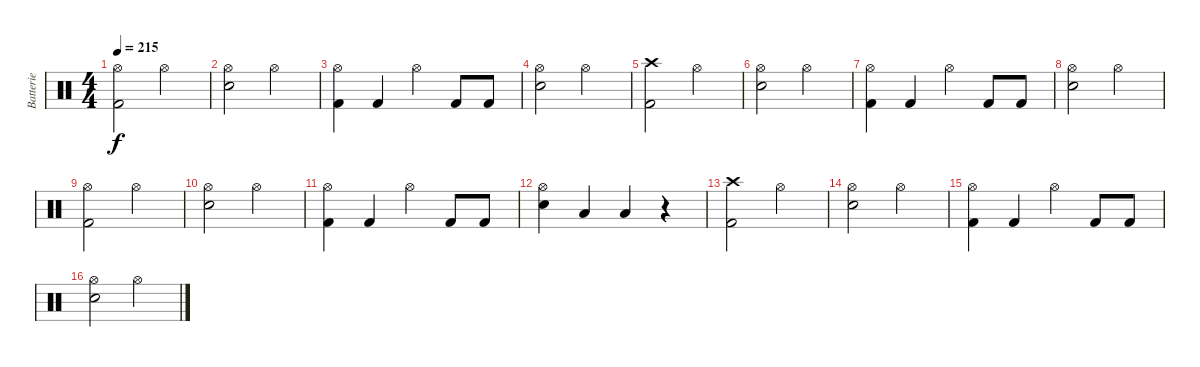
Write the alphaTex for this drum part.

\track ("Batterie" "Batterie") {instrument percussion}
\staff {score}
\articulation defaults
\ts (4 4)
\tempo 215
\clef neutral
\ks c
("Hi-Hat (open)" "Kick (hit) 2").2{dy f} "Hi-Hat (open)".2 |
("Hi-Hat (open)" "Electric Snare (hit)").2 "Hi-Hat (open)".2 |
("Hi-Hat (open)" "Kick (hit) 2").4 "Kick (hit) 2".4 "Hi-Hat (open)".4 "Kick (hit) 2".8 "Kick (hit) 2".8 |
("Hi-Hat (open)" "Electric Snare (hit)").2 "Hi-Hat (open)".2 |
("Crash high (hit)" "Kick (hit) 2").2 "Hi-Hat (open)".2 |
("Hi-Hat (open)" "Electric Snare (hit)").2 "Hi-Hat (open)".2 |
("Hi-Hat (open)" "Kick (hit) 2").4 "Kick (hit) 2".4 "Hi-Hat (open)".4 "Kick (hit) 2".8 "Kick (hit) 2".8 |
("Hi-Hat (open)" "Electric Snare (hit)").2 "Hi-Hat (open)".2 |
("Hi-Hat (open)" "Kick (hit) 2").2 "Hi-Hat (open)".2 |
("Hi-Hat (open)" "Electric Snare (hit)").2 "Hi-Hat (open)".2 |
("Hi-Hat (open)" "Kick (hit) 2").4 "Kick (hit) 2".4 "Hi-Hat (open)".4 "Kick (hit) 2".8 "Kick (hit) 2".8 |
("Hi-Hat (open)" "Electric Snare (hit)").4 "Low Floor Tom (hit)".4 "Low Tom (hit)".4 r.4 |
("Crash high (hit)" "Kick (hit) 2").2 "Hi-Hat (open)".2 |
("Hi-Hat (open)" "Electric Snare (hit)").2 "Hi-Hat (open)".2 |
("Hi-Hat (open)" "Kick (hit) 2").4 "Kick (hit) 2".4 "Hi-Hat (open)".4 "Kick (hit) 2".8 "Kick (hit) 2".8 |
("Hi-Hat (open)" "Electric Snare (hit)").2 "Hi-Hat (open)".2
